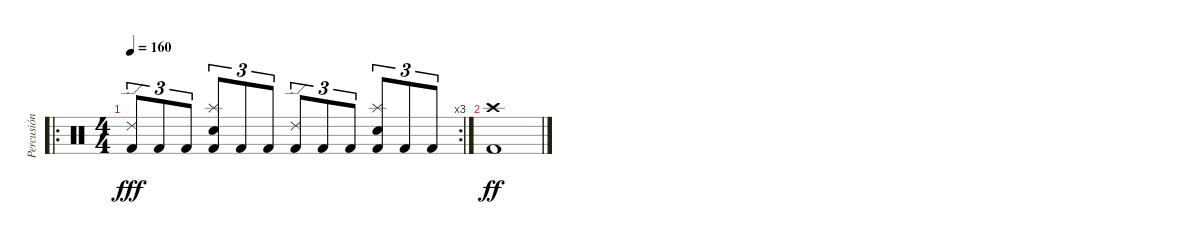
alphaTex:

\track ("Percusión" "Percusión") {instrument percussion}
\staff {score}
\articulation defaults
\ro
\rc 3
\ts (4 4)
\tempo 160
\clef neutral
\ks c
("Ride (edge) 2" "Kick (hit) 2").8{tu (3 2) dy fff} "Kick (hit) 2".8{tu (3 2)} "Kick (hit) 2".8{tu (3 2)} ("Splash (hit)" "Electric Snare (hit)" "Kick (hit) 2").8{tu (3 2)} "Kick (hit) 2".8{tu (3 2)} "Kick (hit) 2".8{tu (3 2)} ("Ride (edge) 2" "Kick (hit) 2").8{tu (3 2)} "Kick (hit) 2".8{tu (3 2)} "Kick (hit) 2".8{tu (3 2)} ("Splash (hit)" "Electric Snare (hit)" "Kick (hit) 2").8{tu (3 2)} "Kick (hit) 2".8{tu (3 2)} "Kick (hit) 2".8{tu (3 2)} |
("Crash high (hit)" "Kick (hit) 2").1{dy ff}
